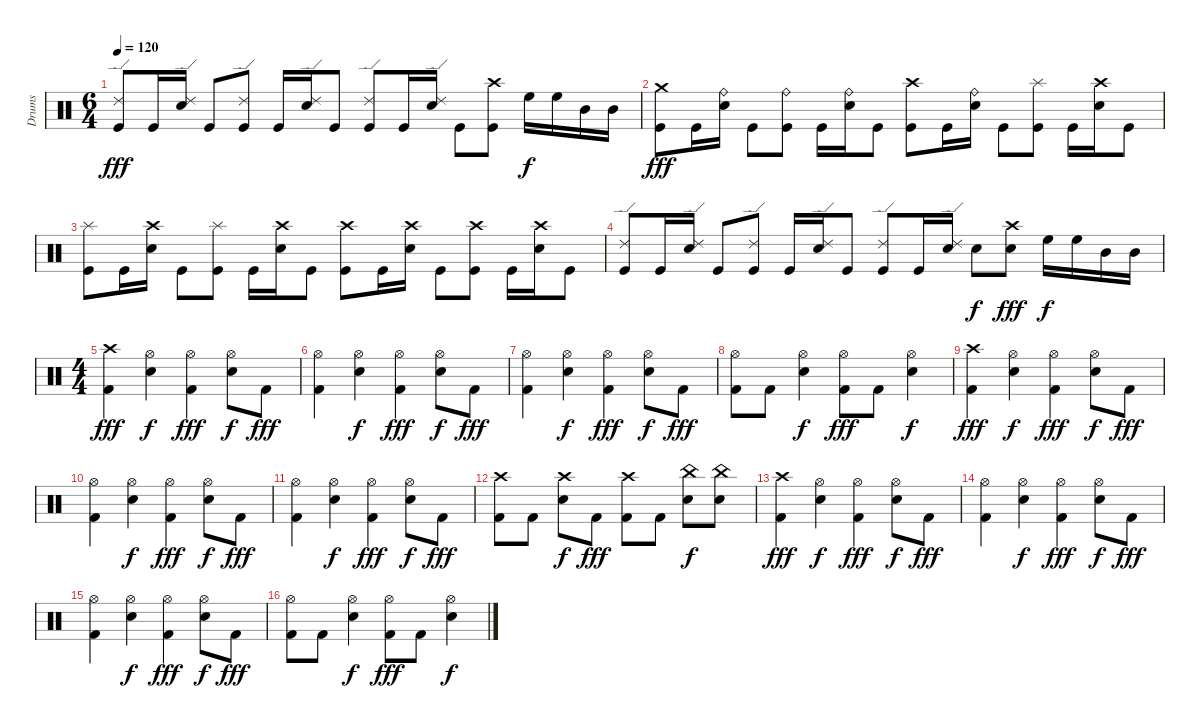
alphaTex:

\track ("Drums" "Drums") {instrument percussion}
\staff {score}
\articulation defaults
\ts (6 4)
\tempo 120
\clef neutral
\ks c
("Ride (edge) 2" "Kick (hit)").8{dy fff} "Kick (hit)".16 ("Ride (edge) 2" "Electric Snare (hit)").16 "Kick (hit)".8 ("Ride (edge) 2" "Kick (hit)").8 "Kick (hit)".16 ("Ride (edge) 2" "Electric Snare (hit)").16 "Kick (hit)".8 ("Ride (edge) 2" "Kick (hit)").8 "Kick (hit)".16 ("Ride (edge) 2" "Electric Snare (hit)").16 "Kick (hit)".8 ("Crash high (hit)" "Kick (hit)").8 "High Floor Tom (hit)".16{dy f} "High Floor Tom (hit)".16 "Mid Tom (hit)".16 "Mid Tom (hit)".16 |
("Crash medium (hit)" "Kick (hit)").8{dy fff} "Kick (hit)".16 ("Ride (bell)" "Electric Snare (hit)").16 "Kick (hit)".8 ("Ride (bell)" "Kick (hit)").8 "Kick (hit)".16 ("Ride (bell)" "Electric Snare (hit)").16 "Kick (hit)".8 ("Crash high (hit)" "Kick (hit)").8 "Kick (hit)".16 ("Ride (bell)" "Electric Snare (hit)").16 "Kick (hit)".8 ("Splash (hit)" "Kick (hit)").8 "Kick (hit)".16 ("Crash high (hit)" "Electric Snare (hit)").16 "Kick (hit)".8 |
("Splash (hit)" "Kick (hit)").8 "Kick (hit)".16 ("Crash high (hit)" "Electric Snare (hit)").16 "Kick (hit)".8 ("Splash (hit)" "Kick (hit)").8 "Kick (hit)".16 ("Crash high (hit)" "Electric Snare (hit)").16 "Kick (hit)".8 ("Crash high (hit)" "Kick (hit)").8 "Kick (hit)".16 ("Crash high (hit)" "Electric Snare (hit)").16 "Kick (hit)".8 ("Crash high (hit)" "Kick (hit)").8 "Kick (hit)".16 ("Crash high (hit)" "Electric Snare (hit)").16 "Kick (hit)".8 |
("Ride (edge) 2" "Kick (hit)").8 "Kick (hit)".16 ("Ride (edge) 2" "Electric Snare (hit)").16 "Kick (hit)".8 ("Ride (edge) 2" "Kick (hit)").8 "Kick (hit)".16 ("Ride (edge) 2" "Electric Snare (hit)").16 "Kick (hit)".8 ("Ride (edge) 2" "Kick (hit)").8 "Kick (hit)".16 ("Ride (edge) 2" "Electric Snare (hit)").16 "Electric Snare (hit)".8{dy f} ("Crash high (hit)" "Electric Snare (hit)").8{dy fff} "High Floor Tom (hit)".16{dy f} "High Floor Tom (hit)".16 "Mid Tom (hit)".16 "Mid Tom (hit)".16 |
\ts (4 4)
("Crash high (hit)" "Kick (hit) 2").4{dy fff} ("Hi-Hat (open)" "Electric Snare (hit)").4{dy f} ("Hi-Hat (open)" "Kick (hit) 2").4{dy fff} ("Hi-Hat (open)" "Electric Snare (hit)").8{dy f} "Kick (hit) 2".8{dy fff} |
("Hi-Hat (open)" "Kick (hit) 2").4 ("Hi-Hat (open)" "Electric Snare (hit)").4{dy f} ("Hi-Hat (open)" "Kick (hit) 2").4{dy fff} ("Hi-Hat (open)" "Electric Snare (hit)").8{dy f} "Kick (hit) 2".8{dy fff} |
("Hi-Hat (open)" "Kick (hit) 2").4 ("Hi-Hat (open)" "Electric Snare (hit)").4{dy f} ("Hi-Hat (open)" "Kick (hit) 2").4{dy fff} ("Hi-Hat (open)" "Electric Snare (hit)").8{dy f} "Kick (hit) 2".8{dy fff} |
("Hi-Hat (open)" "Kick (hit) 2").8 "Kick (hit) 2".8 ("Hi-Hat (open)" "Electric Snare (hit)").4{dy f} ("Hi-Hat (open)" "Kick (hit) 2").8{dy fff} "Kick (hit) 2".8 ("Hi-Hat (open)" "Electric Snare (hit)").4{dy f} |
("Crash high (hit)" "Kick (hit) 2").4{dy fff} ("Hi-Hat (open)" "Electric Snare (hit)").4{dy f} ("Hi-Hat (open)" "Kick (hit) 2").4{dy fff} ("Hi-Hat (open)" "Electric Snare (hit)").8{dy f} "Kick (hit) 2".8{dy fff} |
("Hi-Hat (open)" "Kick (hit) 2").4 ("Hi-Hat (open)" "Electric Snare (hit)").4{dy f} ("Hi-Hat (open)" "Kick (hit) 2").4{dy fff} ("Hi-Hat (open)" "Electric Snare (hit)").8{dy f} "Kick (hit) 2".8{dy fff} |
("Hi-Hat (open)" "Kick (hit) 2").4 ("Hi-Hat (open)" "Electric Snare (hit)").4{dy f} ("Hi-Hat (open)" "Kick (hit) 2").4{dy fff} ("Hi-Hat (open)" "Electric Snare (hit)").8{dy f} "Kick (hit) 2".8{dy fff} |
("Crash high (hit)" "Kick (hit) 2").8 "Kick (hit) 2".8 ("Crash high (hit)" "Electric Snare (hit)").8{dy f} "Kick (hit) 2".8{dy fff} ("Crash high (hit)" "Kick (hit) 2").8 "Kick (hit) 2".8 ("China (hit)" "Electric Snare (hit)").8{dy f} ("China (hit)" "Electric Snare (hit)").8 |
("Crash high (hit)" "Kick (hit) 2").4{dy fff} ("Hi-Hat (open)" "Electric Snare (hit)").4{dy f} ("Hi-Hat (open)" "Kick (hit) 2").4{dy fff} ("Hi-Hat (open)" "Electric Snare (hit)").8{dy f} "Kick (hit) 2".8{dy fff} |
("Hi-Hat (open)" "Kick (hit) 2").4 ("Hi-Hat (open)" "Electric Snare (hit)").4{dy f} ("Hi-Hat (open)" "Kick (hit) 2").4{dy fff} ("Hi-Hat (open)" "Electric Snare (hit)").8{dy f} "Kick (hit) 2".8{dy fff} |
("Hi-Hat (open)" "Kick (hit) 2").4 ("Hi-Hat (open)" "Electric Snare (hit)").4{dy f} ("Hi-Hat (open)" "Kick (hit) 2").4{dy fff} ("Hi-Hat (open)" "Electric Snare (hit)").8{dy f} "Kick (hit) 2".8{dy fff} |
("Hi-Hat (open)" "Kick (hit) 2").8 "Kick (hit) 2".8 ("Hi-Hat (open)" "Electric Snare (hit)").4{dy f} ("Hi-Hat (open)" "Kick (hit) 2").8{dy fff} "Kick (hit) 2".8 ("Hi-Hat (open)" "Electric Snare (hit)").4{dy f}
